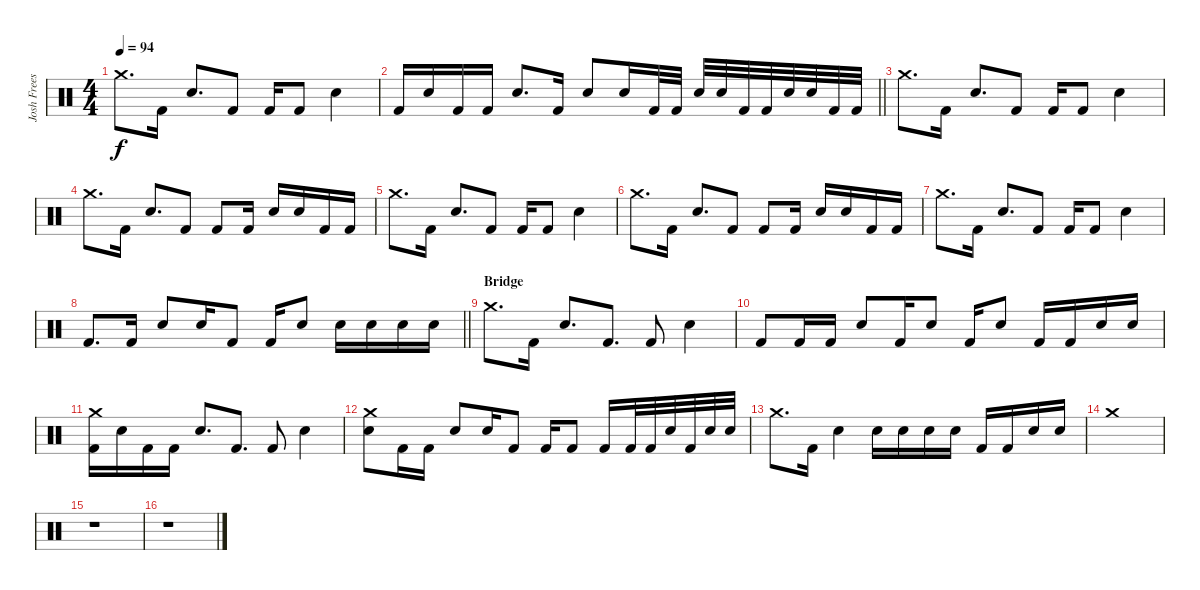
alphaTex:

\track ("Josh Freese (Studio Drummer)" "Josh Frees") {instrument percussion}
\staff {score}
\articulation defaults
\ts (4 4)
\tempo 94
\clef neutral
\ks c "Crash medium (hit)".8{d dy f} "Kick (hit) 2".16 "Electric Snare (hit)".8{d} "Kick (hit) 2".8 "Kick (hit) 2".16 "Kick (hit) 2".8 "Electric Snare (hit)".4
|
\barLineRight lightlight "Kick (hit) 2".16 "Electric Snare (hit)".16 "Kick (hit) 2".16 "Kick (hit) 2".16 "Electric Snare (hit)".8{d} "Kick (hit) 2".16 "Electric Snare (hit)".8 "Electric Snare (hit)".16 "Kick (hit) 2".32 "Kick (hit) 2".32 "Electric Snare (hit)".32 "Electric Snare (hit)".32 "Kick (hit) 2".32 "Kick (hit) 2".32 "Electric Snare (hit)".32 "Electric Snare (hit)".32 "Kick (hit) 2".32 "Kick (hit) 2".32
|
"Crash medium (hit)".8{d} "Kick (hit) 2".16 "Electric Snare (hit)".8{d} "Kick (hit) 2".8 "Kick (hit) 2".16 "Kick (hit) 2".8 "Electric Snare (hit)".4 |
"Crash medium (hit)".8{d} "Kick (hit) 2".16 "Electric Snare (hit)".8{d} "Kick (hit) 2".8 "Kick (hit) 2".8 "Kick (hit) 2".16 "Electric Snare (hit)".16 "Electric Snare (hit)".16 "Kick (hit) 2".16 "Kick (hit) 2".16 |
"Crash medium (hit)".8{d} "Kick (hit) 2".16 "Electric Snare (hit)".8{d} "Kick (hit) 2".8 "Kick (hit) 2".16 "Kick (hit) 2".8 "Electric Snare (hit)".4 |
"Crash medium (hit)".8{d} "Kick (hit) 2".16 "Electric Snare (hit)".8{d} "Kick (hit) 2".8 "Kick (hit) 2".8 "Kick (hit) 2".16 "Electric Snare (hit)".16 "Electric Snare (hit)".16 "Kick (hit) 2".16 "Kick (hit) 2".16 |
"Crash medium (hit)".8{d} "Kick (hit) 2".16 "Electric Snare (hit)".8{d} "Kick (hit) 2".8 "Kick (hit) 2".16 "Kick (hit) 2".8 "Electric Snare (hit)".4 |
\barLineRight lightlight "Kick (hit) 2".8{d} "Kick (hit) 2".16 "Electric Snare (hit)".8 "Electric Snare (hit)".16 "Kick (hit) 2".8 "Kick (hit) 2".16 "Electric Snare (hit)".8 "Electric Snare (hit)".16 "Electric Snare (hit)".16 "Electric Snare (hit)".16 "Electric Snare (hit)".16
|
\section ("" "Bridge")
"Crash medium (hit)".8{d} "Kick (hit) 2".16 "Electric Snare (hit)".8{d} "Kick (hit) 2".8{d} "Kick (hit) 2".8 "Electric Snare (hit)".4 |
"Kick (hit) 2".8 "Kick (hit) 2".16 "Kick (hit) 2".16 "Electric Snare (hit)".8 "Kick (hit) 2".16 "Electric Snare (hit)".8 "Kick (hit) 2".16 "Electric Snare (hit)".8 "Kick (hit) 2".16 "Kick (hit) 2".16 "Electric Snare (hit)".16 "Electric Snare (hit)".16 |
("Crash medium (hit)" "Kick (hit) 2").16 "Electric Snare (hit)".16 "Kick (hit) 2".16 "Kick (hit) 2".16 "Electric Snare (hit)".8{d} "Kick (hit) 2".8{d} "Kick (hit) 2".8 "Electric Snare (hit)".4 |
("Crash medium (hit)" "Electric Snare (hit)").8 "Kick (hit) 2".16 "Kick (hit) 2".16 "Electric Snare (hit)".8 "Electric Snare (hit)".16 "Kick (hit) 2".8 "Kick (hit) 2".16 "Kick (hit) 2".8 "Kick (hit) 2".16 "Kick (hit) 2".32 "Kick (hit) 2".32 "Electric Snare (hit)".32 "Kick (hit) 2".32 "Electric Snare (hit)".32 "Electric Snare (hit)".32 |
"Crash medium (hit)".8{d} "Kick (hit) 2".16 "Electric Snare (hit)".4 "Electric Snare (hit)".16 "Electric Snare (hit)".16 "Electric Snare (hit)".16 "Electric Snare (hit)".16 "Kick (hit) 2".16 "Kick (hit) 2".16 "Electric Snare (hit)".16 "Electric Snare (hit)".16 |
"Crash medium (hit)".1 |
r.1 |
r.1
